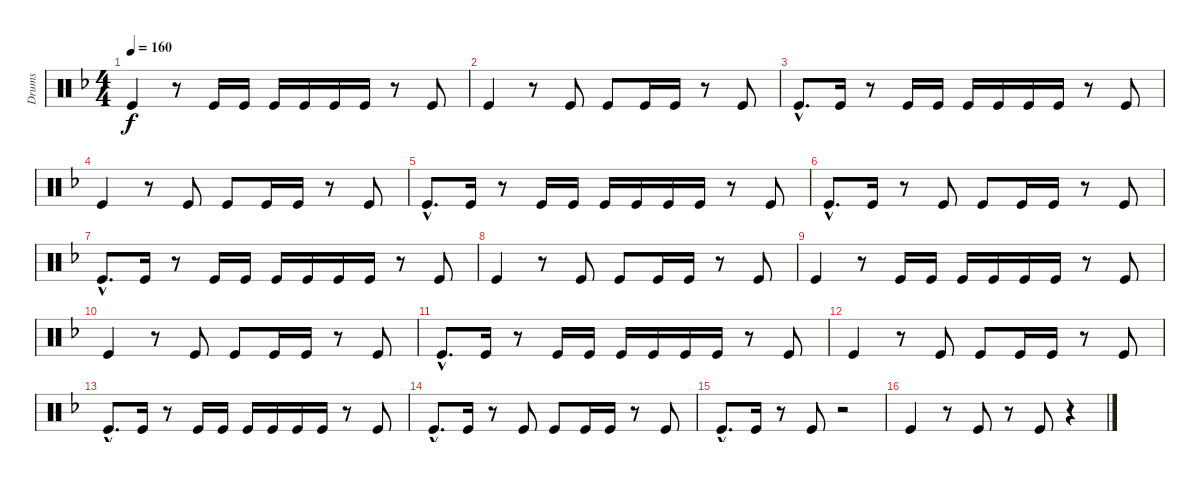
\track ("Drums" "Drums") {instrument percussion}
\staff {score}
\articulation defaults
\ts (4 4)
\tempo 160
\clef neutral
\ks f "Kick (hit)".4{dy f}
r.8 "Kick (hit)".16 "Kick (hit)".16 "Kick (hit)".16 "Kick (hit)".16 "Kick (hit)".16 "Kick (hit)".16 r.8 "Kick (hit)".8 |
"Kick (hit)".4 r.8 "Kick (hit)".8 "Kick (hit)".8 "Kick (hit)".16 "Kick (hit)".16 r.8 "Kick (hit)".8 |
"Kick (hit)"{hac}.8{d} "Kick (hit)".16 r.8 "Kick (hit)".16 "Kick (hit)".16 "Kick (hit)".16 "Kick (hit)".16 "Kick (hit)".16 "Kick (hit)".16 r.8 "Kick (hit)".8 |
"Kick (hit)".4 r.8 "Kick (hit)".8 "Kick (hit)".8 "Kick (hit)".16 "Kick (hit)".16 r.8 "Kick (hit)".8 |
"Kick (hit)"{hac}.8{d} "Kick (hit)".16 r.8 "Kick (hit)".16 "Kick (hit)".16 "Kick (hit)".16 "Kick (hit)".16 "Kick (hit)".16 "Kick (hit)".16 r.8 "Kick (hit)".8 |
"Kick (hit)"{hac}.8{d} "Kick (hit)".16 r.8 "Kick (hit)".8 "Kick (hit)".8 "Kick (hit)".16 "Kick (hit)".16 r.8 "Kick (hit)".8 |
"Kick (hit)"{hac}.8{d} "Kick (hit)".16 r.8 "Kick (hit)".16 "Kick (hit)".16 "Kick (hit)".16 "Kick (hit)".16 "Kick (hit)".16 "Kick (hit)".16 r.8 "Kick (hit)".8 |
"Kick (hit)".4 r.8 "Kick (hit)".8 "Kick (hit)".8 "Kick (hit)".16 "Kick (hit)".16 r.8 "Kick (hit)".8 |
"Kick (hit)".4 r.8 "Kick (hit)".16 "Kick (hit)".16 "Kick (hit)".16 "Kick (hit)".16 "Kick (hit)".16 "Kick (hit)".16 r.8 "Kick (hit)".8 |
"Kick (hit)".4 r.8 "Kick (hit)".8 "Kick (hit)".8 "Kick (hit)".16 "Kick (hit)".16 r.8 "Kick (hit)".8 |
"Kick (hit)"{hac}.8{d} "Kick (hit)".16 r.8 "Kick (hit)".16 "Kick (hit)".16 "Kick (hit)".16 "Kick (hit)".16 "Kick (hit)".16 "Kick (hit)".16 r.8 "Kick (hit)".8 |
"Kick (hit)".4 r.8 "Kick (hit)".8 "Kick (hit)".8 "Kick (hit)".16 "Kick (hit)".16 r.8 "Kick (hit)".8 |
"Kick (hit)"{hac}.8{d} "Kick (hit)".16 r.8 "Kick (hit)".16 "Kick (hit)".16 "Kick (hit)".16 "Kick (hit)".16 "Kick (hit)".16 "Kick (hit)".16 r.8 "Kick (hit)".8 |
"Kick (hit)"{hac}.8{d} "Kick (hit)".16 r.8 "Kick (hit)".8 "Kick (hit)".8 "Kick (hit)".16 "Kick (hit)".16 r.8 "Kick (hit)".8 |
"Kick (hit)"{hac}.8{d} "Kick (hit)".16 r.8 "Kick (hit)".8 r.2 |
"Kick (hit)".4 r.8 "Kick (hit)".8 r.8 "Kick (hit)".8 r.4
